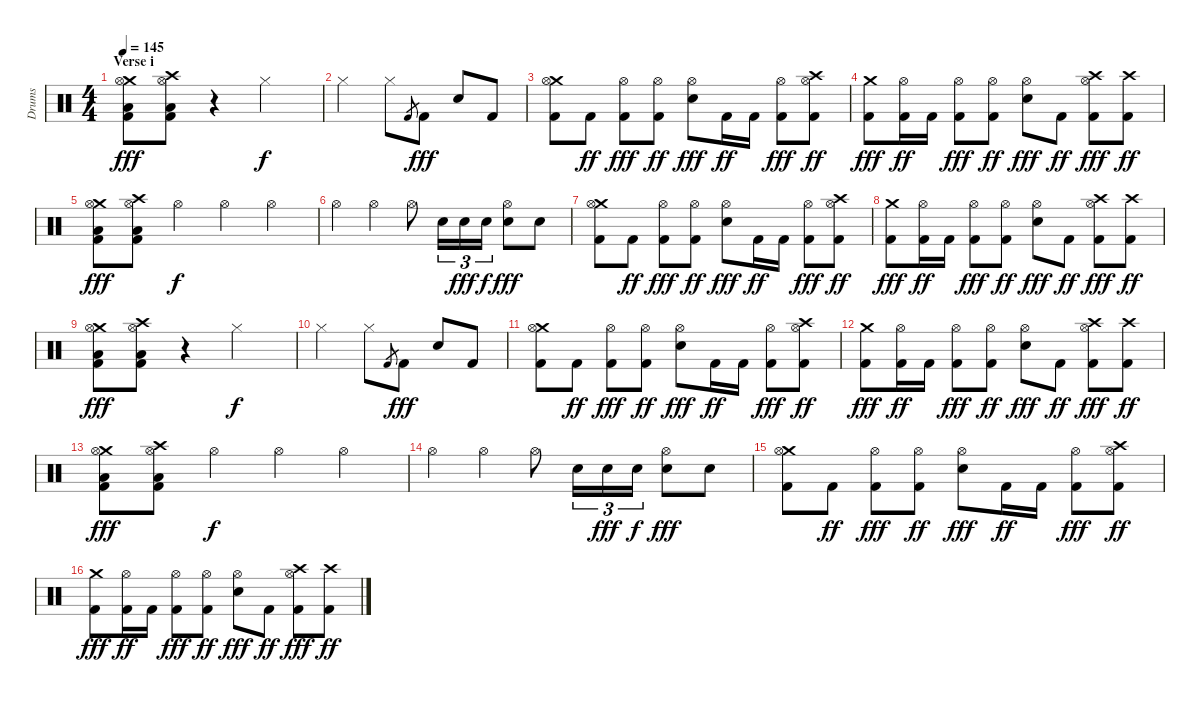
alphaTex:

\track ("Drums" "Drums") {instrument percussion}
\staff {score}
\articulation defaults
\ts (4 4)
\section ("" "Verse i")
\tempo 145
\clef neutral
\ks c
("Crash medium (hit)" "Hi-Hat (open)" "Low Tom (hit)" "Kick (hit) 2").8{dy fff} ("Crash high (hit)" "Hi-Hat (open)" "Low Tom (hit)" "Kick (hit) 2").8 r.4 "Hi-Hat (closed)".2{dy f} |
"Hi-Hat (closed)".2 "Hi-Hat (closed)".8 "Kick (hit) 2".8{gr} "Kick (hit) 2".8{dy fff} "Snare (hit) 2".8 "Kick (hit) 2".8 |
("Crash medium (hit)" "Hi-Hat (open)" "Kick (hit) 2").8 "Kick (hit) 2".8{dy ff} ("Hi-Hat (open)" "Kick (hit) 2").8{dy fff} ("Hi-Hat (open)" "Kick (hit) 2").8{dy ff} ("Hi-Hat (open)" "Snare (hit) 2").8{dy fff} "Kick (hit) 2".16{dy ff} "Kick (hit) 2".16 ("Hi-Hat (open)" "Kick (hit) 2").8{dy fff} ("Crash high (hit)" "Hi-Hat (open)" "Kick (hit) 2").8{dy ff} |
("Crash medium (hit)" "Kick (hit) 2").8{dy fff} ("Hi-Hat (open)" "Kick (hit) 2").16{dy ff} "Kick (hit) 2".16 ("Hi-Hat (open)" "Kick (hit) 2").8{dy fff} ("Hi-Hat (open)" "Kick (hit) 2").8{dy ff} ("Hi-Hat (open)" "Snare (hit) 2").8{dy fff} "Kick (hit) 2".8{dy ff} ("Crash high (hit)" "Hi-Hat (open)" "Kick (hit) 2").8{dy fff} ("Crash high (hit)" "Kick (hit) 2").8{dy ff} |
("Crash medium (hit)" "Hi-Hat (open)" "Low Tom (hit)" "Kick (hit) 2").8{dy fff} ("Crash high (hit)" "Hi-Hat (open)" "Low Tom (hit)" "Kick (hit) 2").8 "Hi-Hat (open)".4{dy f} "Hi-Hat (open)".4 "Hi-Hat (open)".4 |
"Hi-Hat (open)".4 "Hi-Hat (open)".4 "Hi-Hat (open)".8 "Snare (hit) 2".16{tu (3 2)} "Snare (hit) 2".16{tu (3 2) dy fff} "Snare (hit) 2".16{tu (3 2) dy f} ("Hi-Hat (open)" "Snare (hit) 2").8{dy fff} "Snare (hit) 2".8 |
("Crash medium (hit)" "Hi-Hat (open)" "Kick (hit) 2").8 "Kick (hit) 2".8{dy ff} ("Hi-Hat (open)" "Kick (hit) 2").8{dy fff} ("Hi-Hat (open)" "Kick (hit) 2").8{dy ff} ("Hi-Hat (open)" "Snare (hit) 2").8{dy fff} "Kick (hit) 2".16{dy ff} "Kick (hit) 2".16 ("Hi-Hat (open)" "Kick (hit) 2").8{dy fff} ("Crash high (hit)" "Hi-Hat (open)" "Kick (hit) 2").8{dy ff} |
("Crash medium (hit)" "Kick (hit) 2").8{dy fff} ("Hi-Hat (open)" "Kick (hit) 2").16{dy ff} "Kick (hit) 2".16 ("Hi-Hat (open)" "Kick (hit) 2").8{dy fff} ("Hi-Hat (open)" "Kick (hit) 2").8{dy ff} ("Hi-Hat (open)" "Snare (hit) 2").8{dy fff} "Kick (hit) 2".8{dy ff} ("Crash high (hit)" "Hi-Hat (open)" "Kick (hit) 2").8{dy fff} ("Crash high (hit)" "Kick (hit) 2").8{dy ff} |
("Crash medium (hit)" "Hi-Hat (open)" "Low Tom (hit)" "Kick (hit) 2").8{dy fff} ("Crash high (hit)" "Hi-Hat (open)" "Low Tom (hit)" "Kick (hit) 2").8 r.4 "Hi-Hat (closed)".2{dy f} |
"Hi-Hat (closed)".2 "Hi-Hat (closed)".8 "Kick (hit) 2".8{gr} "Kick (hit) 2".8{dy fff} "Snare (hit) 2".8 "Kick (hit) 2".8 |
("Crash medium (hit)" "Hi-Hat (open)" "Kick (hit) 2").8 "Kick (hit) 2".8{dy ff} ("Hi-Hat (open)" "Kick (hit) 2").8{dy fff} ("Hi-Hat (open)" "Kick (hit) 2").8{dy ff} ("Hi-Hat (open)" "Snare (hit) 2").8{dy fff} "Kick (hit) 2".16{dy ff} "Kick (hit) 2".16 ("Hi-Hat (open)" "Kick (hit) 2").8{dy fff} ("Crash high (hit)" "Hi-Hat (open)" "Kick (hit) 2").8{dy ff} |
("Crash medium (hit)" "Kick (hit) 2").8{dy fff} ("Hi-Hat (open)" "Kick (hit) 2").16{dy ff} "Kick (hit) 2".16 ("Hi-Hat (open)" "Kick (hit) 2").8{dy fff} ("Hi-Hat (open)" "Kick (hit) 2").8{dy ff} ("Hi-Hat (open)" "Snare (hit) 2").8{dy fff} "Kick (hit) 2".8{dy ff} ("Crash high (hit)" "Hi-Hat (open)" "Kick (hit) 2").8{dy fff} ("Crash high (hit)" "Kick (hit) 2").8{dy ff} |
("Crash medium (hit)" "Hi-Hat (open)" "Low Tom (hit)" "Kick (hit) 2").8{dy fff} ("Crash high (hit)" "Hi-Hat (open)" "Low Tom (hit)" "Kick (hit) 2").8 "Hi-Hat (open)".4{dy f} "Hi-Hat (open)".4 "Hi-Hat (open)".4 |
"Hi-Hat (open)".4 "Hi-Hat (open)".4 "Hi-Hat (open)".8 "Snare (hit) 2".16{tu (3 2)} "Snare (hit) 2".16{tu (3 2) dy fff} "Snare (hit) 2".16{tu (3 2) dy f} ("Hi-Hat (open)" "Snare (hit) 2").8{dy fff} "Snare (hit) 2".8 |
("Crash medium (hit)" "Hi-Hat (open)" "Kick (hit) 2").8 "Kick (hit) 2".8{dy ff} ("Hi-Hat (open)" "Kick (hit) 2").8{dy fff} ("Hi-Hat (open)" "Kick (hit) 2").8{dy ff} ("Hi-Hat (open)" "Snare (hit) 2").8{dy fff} "Kick (hit) 2".16{dy ff} "Kick (hit) 2".16 ("Hi-Hat (open)" "Kick (hit) 2").8{dy fff} ("Crash high (hit)" "Hi-Hat (open)" "Kick (hit) 2").8{dy ff} |
("Crash medium (hit)" "Kick (hit) 2").8{dy fff} ("Hi-Hat (open)" "Kick (hit) 2").16{dy ff} "Kick (hit) 2".16 ("Hi-Hat (open)" "Kick (hit) 2").8{dy fff} ("Hi-Hat (open)" "Kick (hit) 2").8{dy ff} ("Hi-Hat (open)" "Snare (hit) 2").8{dy fff} "Kick (hit) 2".8{dy ff} ("Crash high (hit)" "Hi-Hat (open)" "Kick (hit) 2").8{dy fff} ("Crash high (hit)" "Kick (hit) 2").8{dy ff}
